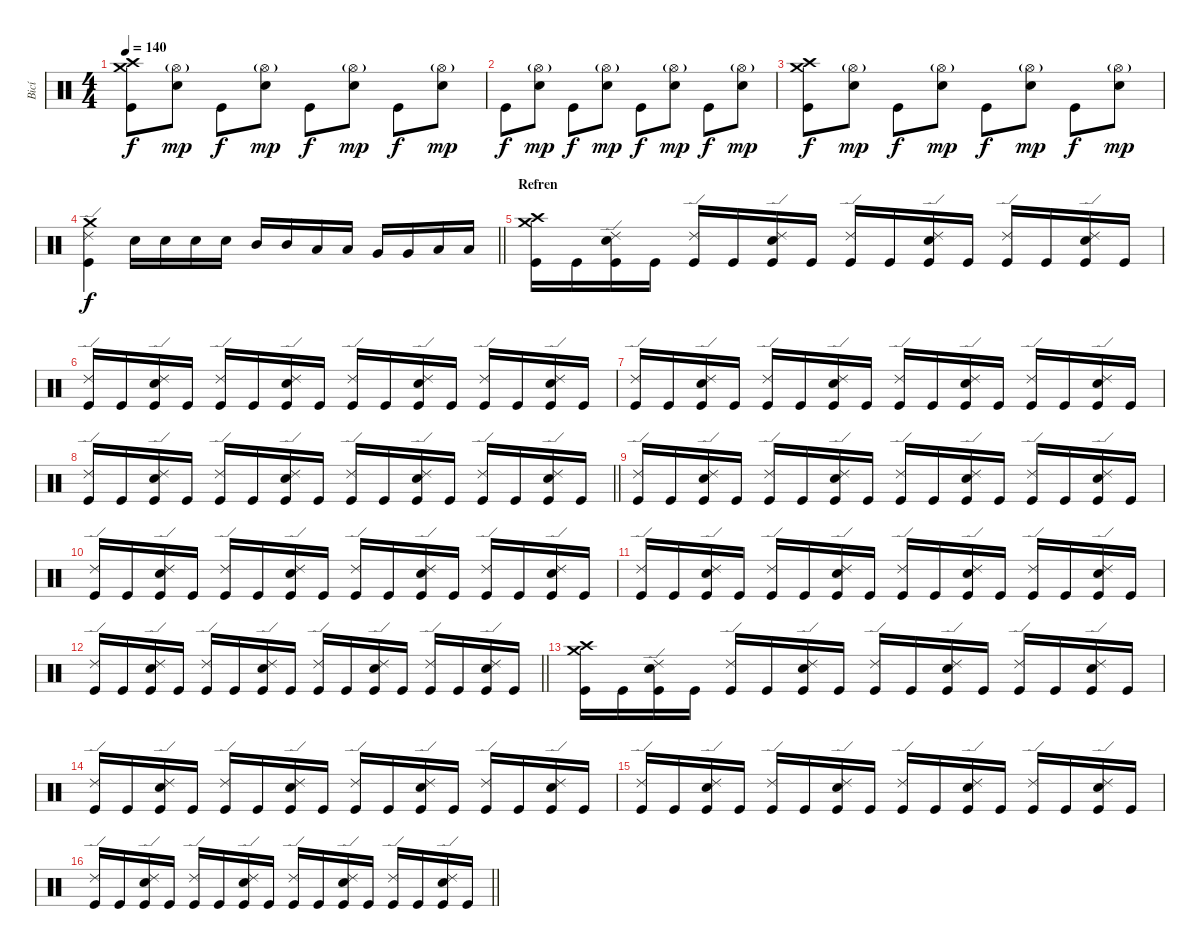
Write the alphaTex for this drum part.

\track ("Bicí" "Bicí") {instrument percussion}
\staff {score}
\articulation defaults
\ts (4 4)
\tempo 140
\clef neutral
\ks c
("Crash high (hit)" "Crash medium (hit)" "Kick (hit)").8{dy f} ("Hi-Hat (open)"{g} "Electric Snare (hit)").8{dy mp} "Kick (hit)".8{dy f} ("Hi-Hat (open)"{g} "Electric Snare (hit)").8{dy mp} "Kick (hit)".8{dy f} ("Hi-Hat (open)"{g} "Electric Snare (hit)").8{dy mp} "Kick (hit)".8{dy f} ("Hi-Hat (open)"{g} "Electric Snare (hit)").8{dy mp} |
"Kick (hit)".8{dy f} ("Hi-Hat (open)"{g} "Electric Snare (hit)").8{dy mp} "Kick (hit)".8{dy f} ("Hi-Hat (open)"{g} "Electric Snare (hit)").8{dy mp} "Kick (hit)".8{dy f} ("Hi-Hat (open)"{g} "Electric Snare (hit)").8{dy mp} "Kick (hit)".8{dy f} ("Hi-Hat (open)"{g} "Electric Snare (hit)").8{dy mp} |
("Crash medium (hit)" "Crash high (hit)" "Kick (hit)").8{dy f} ("Hi-Hat (open)"{g} "Electric Snare (hit)").8{dy mp} "Kick (hit)".8{dy f} ("Hi-Hat (open)"{g} "Electric Snare (hit)").8{dy mp} "Kick (hit)".8{dy f} ("Hi-Hat (open)"{g} "Electric Snare (hit)").8{dy mp} "Kick (hit)".8{dy f} ("Hi-Hat (open)"{g} "Electric Snare (hit)").8{dy mp} |
\barLineRight lightlight
("Crash medium (hit)" "Ride (edge) 2" "Kick (hit)").4{dy f} "Electric Snare (hit)".16 "Electric Snare (hit)".16 "Electric Snare (hit)".16 "Electric Snare (hit)".16 "Mid Tom (hit)".16 "Mid Tom (hit)".16 "Low Tom (hit)".16 "Low Tom (hit)".16 "Very Low Tom (hit)".16 "Very Low Tom (hit)".16 "Low Floor Tom (hit)".16 "Low Floor Tom (hit)".16 |
\section ("" "Refren")
("Crash high (hit)" "Crash medium (hit)" "Kick (hit)").16 "Kick (hit)".16 ("Ride (edge) 2" "Electric Snare (hit)" "Kick (hit)").16 "Kick (hit)".16 ("Ride (edge) 2" "Kick (hit)").16 "Kick (hit)".16 ("Ride (edge) 2" "Electric Snare (hit)" "Kick (hit)").16 "Kick (hit)".16 ("Ride (edge) 2" "Kick (hit)").16 "Kick (hit)".16 ("Ride (edge) 2" "Electric Snare (hit)" "Kick (hit)").16 "Kick (hit)".16 ("Ride (edge) 2" "Kick (hit)").16 "Kick (hit)".16 ("Ride (edge) 2" "Electric Snare (hit)" "Kick (hit)").16 "Kick (hit)".16 |
("Ride (edge) 2" "Kick (hit)").16 "Kick (hit)".16 ("Ride (edge) 2" "Electric Snare (hit)" "Kick (hit)").16 "Kick (hit)".16 ("Ride (edge) 2" "Kick (hit)").16 "Kick (hit)".16 ("Ride (edge) 2" "Electric Snare (hit)" "Kick (hit)").16 "Kick (hit)".16 ("Ride (edge) 2" "Kick (hit)").16 "Kick (hit)".16 ("Ride (edge) 2" "Electric Snare (hit)" "Kick (hit)").16 "Kick (hit)".16 ("Ride (edge) 2" "Kick (hit)").16 "Kick (hit)".16 ("Ride (edge) 2" "Electric Snare (hit)" "Kick (hit)").16 "Kick (hit)".16 |
("Ride (edge) 2" "Kick (hit)").16 "Kick (hit)".16 ("Ride (edge) 2" "Electric Snare (hit)" "Kick (hit)").16 "Kick (hit)".16 ("Ride (edge) 2" "Kick (hit)").16 "Kick (hit)".16 ("Ride (edge) 2" "Electric Snare (hit)" "Kick (hit)").16 "Kick (hit)".16 ("Ride (edge) 2" "Kick (hit)").16 "Kick (hit)".16 ("Ride (edge) 2" "Electric Snare (hit)" "Kick (hit)").16 "Kick (hit)".16 ("Ride (edge) 2" "Kick (hit)").16 "Kick (hit)".16 ("Ride (edge) 2" "Electric Snare (hit)" "Kick (hit)").16 "Kick (hit)".16 |
\barLineRight lightlight
("Ride (edge) 2" "Kick (hit)").16 "Kick (hit)".16 ("Ride (edge) 2" "Electric Snare (hit)" "Kick (hit)").16 "Kick (hit)".16 ("Ride (edge) 2" "Kick (hit)").16 "Kick (hit)".16 ("Ride (edge) 2" "Electric Snare (hit)" "Kick (hit)").16 "Kick (hit)".16 ("Ride (edge) 2" "Kick (hit)").16 "Kick (hit)".16 ("Ride (edge) 2" "Electric Snare (hit)" "Kick (hit)").16 "Kick (hit)".16 ("Ride (edge) 2" "Kick (hit)").16 "Kick (hit)".16 ("Ride (edge) 2" "Electric Snare (hit)" "Kick (hit)").16 "Kick (hit)".16 |
("Ride (edge) 2" "Kick (hit)").16 "Kick (hit)".16 ("Ride (edge) 2" "Electric Snare (hit)" "Kick (hit)").16 "Kick (hit)".16 ("Ride (edge) 2" "Kick (hit)").16 "Kick (hit)".16 ("Ride (edge) 2" "Electric Snare (hit)" "Kick (hit)").16 "Kick (hit)".16 ("Ride (edge) 2" "Kick (hit)").16 "Kick (hit)".16 ("Ride (edge) 2" "Electric Snare (hit)" "Kick (hit)").16 "Kick (hit)".16 ("Ride (edge) 2" "Kick (hit)").16 "Kick (hit)".16 ("Ride (edge) 2" "Electric Snare (hit)" "Kick (hit)").16 "Kick (hit)".16 |
("Ride (edge) 2" "Kick (hit)").16 "Kick (hit)".16 ("Ride (edge) 2" "Electric Snare (hit)" "Kick (hit)").16 "Kick (hit)".16 ("Ride (edge) 2" "Kick (hit)").16 "Kick (hit)".16 ("Ride (edge) 2" "Electric Snare (hit)" "Kick (hit)").16 "Kick (hit)".16 ("Ride (edge) 2" "Kick (hit)").16 "Kick (hit)".16 ("Ride (edge) 2" "Electric Snare (hit)" "Kick (hit)").16 "Kick (hit)".16 ("Ride (edge) 2" "Kick (hit)").16 "Kick (hit)".16 ("Ride (edge) 2" "Electric Snare (hit)" "Kick (hit)").16 "Kick (hit)".16 |
("Ride (edge) 2" "Kick (hit)").16 "Kick (hit)".16 ("Ride (edge) 2" "Electric Snare (hit)" "Kick (hit)").16 "Kick (hit)".16 ("Ride (edge) 2" "Kick (hit)").16 "Kick (hit)".16 ("Ride (edge) 2" "Electric Snare (hit)" "Kick (hit)").16 "Kick (hit)".16 ("Ride (edge) 2" "Kick (hit)").16 "Kick (hit)".16 ("Ride (edge) 2" "Electric Snare (hit)" "Kick (hit)").16 "Kick (hit)".16 ("Ride (edge) 2" "Kick (hit)").16 "Kick (hit)".16 ("Ride (edge) 2" "Electric Snare (hit)" "Kick (hit)").16 "Kick (hit)".16 |
\barLineRight lightlight
("Ride (edge) 2" "Kick (hit)").16 "Kick (hit)".16 ("Ride (edge) 2" "Electric Snare (hit)" "Kick (hit)").16 "Kick (hit)".16 ("Ride (edge) 2" "Kick (hit)").16 "Kick (hit)".16 ("Ride (edge) 2" "Electric Snare (hit)" "Kick (hit)").16 "Kick (hit)".16 ("Ride (edge) 2" "Kick (hit)").16 "Kick (hit)".16 ("Ride (edge) 2" "Electric Snare (hit)" "Kick (hit)").16 "Kick (hit)".16 ("Ride (edge) 2" "Kick (hit)").16 "Kick (hit)".16 ("Ride (edge) 2" "Electric Snare (hit)" "Kick (hit)").16 "Kick (hit)".16 |
("Crash high (hit)" "Crash medium (hit)" "Kick (hit)").16 "Kick (hit)".16 ("Ride (edge) 2" "Electric Snare (hit)" "Kick (hit)").16 "Kick (hit)".16 ("Ride (edge) 2" "Kick (hit)").16 "Kick (hit)".16 ("Ride (edge) 2" "Electric Snare (hit)" "Kick (hit)").16 "Kick (hit)".16 ("Ride (edge) 2" "Kick (hit)").16 "Kick (hit)".16 ("Ride (edge) 2" "Electric Snare (hit)" "Kick (hit)").16 "Kick (hit)".16 ("Ride (edge) 2" "Kick (hit)").16 "Kick (hit)".16 ("Ride (edge) 2" "Electric Snare (hit)" "Kick (hit)").16 "Kick (hit)".16 |
("Ride (edge) 2" "Kick (hit)").16 "Kick (hit)".16 ("Ride (edge) 2" "Electric Snare (hit)" "Kick (hit)").16 "Kick (hit)".16 ("Ride (edge) 2" "Kick (hit)").16 "Kick (hit)".16 ("Ride (edge) 2" "Electric Snare (hit)" "Kick (hit)").16 "Kick (hit)".16 ("Ride (edge) 2" "Kick (hit)").16 "Kick (hit)".16 ("Ride (edge) 2" "Electric Snare (hit)" "Kick (hit)").16 "Kick (hit)".16 ("Ride (edge) 2" "Kick (hit)").16 "Kick (hit)".16 ("Ride (edge) 2" "Electric Snare (hit)" "Kick (hit)").16 "Kick (hit)".16 |
("Ride (edge) 2" "Kick (hit)").16 "Kick (hit)".16 ("Ride (edge) 2" "Electric Snare (hit)" "Kick (hit)").16 "Kick (hit)".16 ("Ride (edge) 2" "Kick (hit)").16 "Kick (hit)".16 ("Ride (edge) 2" "Electric Snare (hit)" "Kick (hit)").16 "Kick (hit)".16 ("Ride (edge) 2" "Kick (hit)").16 "Kick (hit)".16 ("Ride (edge) 2" "Electric Snare (hit)" "Kick (hit)").16 "Kick (hit)".16 ("Ride (edge) 2" "Kick (hit)").16 "Kick (hit)".16 ("Ride (edge) 2" "Electric Snare (hit)" "Kick (hit)").16 "Kick (hit)".16 |
\barLineRight lightlight
("Ride (edge) 2" "Kick (hit)").16 "Kick (hit)".16 ("Ride (edge) 2" "Electric Snare (hit)" "Kick (hit)").16 "Kick (hit)".16 ("Ride (edge) 2" "Kick (hit)").16 "Kick (hit)".16 ("Ride (edge) 2" "Electric Snare (hit)" "Kick (hit)").16 "Kick (hit)".16 ("Ride (edge) 2" "Kick (hit)").16 "Kick (hit)".16 ("Ride (edge) 2" "Electric Snare (hit)" "Kick (hit)").16 "Kick (hit)".16 ("Ride (edge) 2" "Kick (hit)").16 "Kick (hit)".16 ("Ride (edge) 2" "Electric Snare (hit)" "Kick (hit)").16 "Kick (hit)".16
